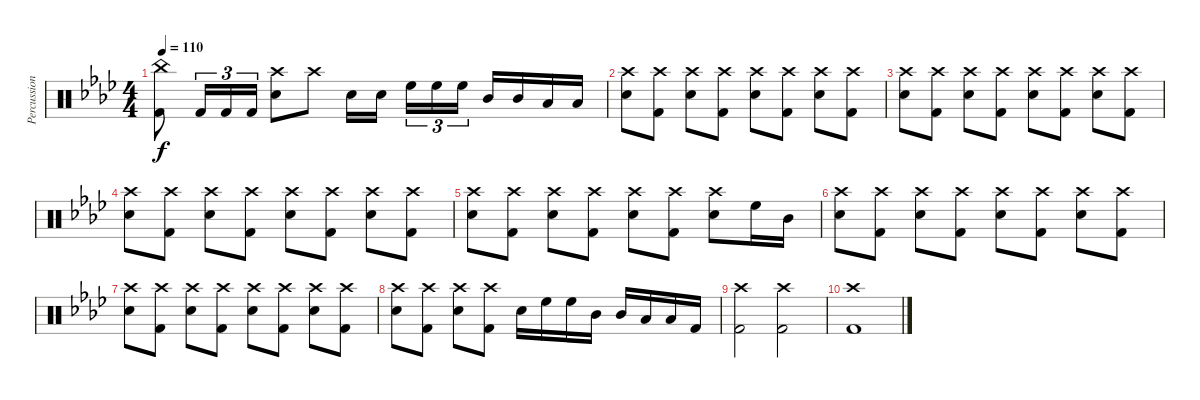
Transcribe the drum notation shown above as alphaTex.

\track ("Percussions" "Percussion") {instrument percussion}
\staff {score}
\articulation defaults
\ts (4 4)
\tempo 110
\clef neutral
\ks fminor
("China (hit)" "Kick (hit) 2").8{dy f} "Kick (hit) 2".16{tu (3 2)} "Kick (hit) 2".16{tu (3 2)} "Kick (hit) 2".16{tu (3 2)} ("Crash high (hit)" "Snare (hit) 2").8 "Crash high (hit)".8 "Snare (hit) 2".16 "Snare (hit) 2".16 "High Floor Tom (hit)".16{tu (3 2)} "High Floor Tom (hit)".16{tu (3 2)} "High Floor Tom (hit)".16{tu (3 2)} "Mid Tom (hit)".16 "Mid Tom (hit)".16 "Low Tom (hit)".16 "Low Tom (hit)".16 |
("Crash high (hit)" "Snare (hit) 2").8 ("Crash high (hit)" "Kick (hit) 2").8 ("Crash high (hit)" "Snare (hit) 2").8 ("Crash high (hit)" "Kick (hit) 2").8 ("Crash high (hit)" "Snare (hit) 2").8 ("Crash high (hit)" "Kick (hit) 2").8 ("Crash high (hit)" "Snare (hit) 2").8 ("Crash high (hit)" "Kick (hit) 2").8 |
("Crash high (hit)" "Snare (hit) 2").8 ("Crash high (hit)" "Kick (hit) 2").8 ("Crash high (hit)" "Snare (hit) 2").8 ("Crash high (hit)" "Kick (hit) 2").8 ("Crash high (hit)" "Snare (hit) 2").8 ("Crash high (hit)" "Kick (hit) 2").8 ("Crash high (hit)" "Snare (hit) 2").8 ("Crash high (hit)" "Kick (hit) 2").8 |
("Crash high (hit)" "Snare (hit) 2").8 ("Crash high (hit)" "Kick (hit) 2").8 ("Crash high (hit)" "Snare (hit) 2").8 ("Crash high (hit)" "Kick (hit) 2").8 ("Crash high (hit)" "Snare (hit) 2").8 ("Crash high (hit)" "Kick (hit) 2").8 ("Crash high (hit)" "Snare (hit) 2").8 ("Crash high (hit)" "Kick (hit) 2").8 |
("Crash high (hit)" "Snare (hit) 2").8 ("Crash high (hit)" "Kick (hit) 2").8 ("Crash high (hit)" "Snare (hit) 2").8 ("Crash high (hit)" "Kick (hit) 2").8 ("Crash high (hit)" "Snare (hit) 2").8 ("Crash high (hit)" "Kick (hit) 2").8 ("Crash high (hit)" "Snare (hit) 2").8 "High Floor Tom (hit)".16 "Mid Tom (hit)".16 |
("Crash high (hit)" "Snare (hit) 2").8 ("Crash high (hit)" "Kick (hit) 2").8 ("Crash high (hit)" "Snare (hit) 2").8 ("Crash high (hit)" "Kick (hit) 2").8 ("Crash high (hit)" "Snare (hit) 2").8 ("Crash high (hit)" "Kick (hit) 2").8 ("Crash high (hit)" "Snare (hit) 2").8 ("Crash high (hit)" "Kick (hit) 2").8 |
("Crash high (hit)" "Snare (hit) 2").8 ("Crash high (hit)" "Kick (hit) 2").8 ("Crash high (hit)" "Snare (hit) 2").8 ("Crash high (hit)" "Kick (hit) 2").8 ("Crash high (hit)" "Snare (hit) 2").8 ("Crash high (hit)" "Kick (hit) 2").8 ("Crash high (hit)" "Snare (hit) 2").8 ("Crash high (hit)" "Kick (hit) 2").8 |
("Crash high (hit)" "Snare (hit) 2").8 ("Crash high (hit)" "Kick (hit) 2").8 ("Crash high (hit)" "Snare (hit) 2").8 ("Crash high (hit)" "Kick (hit) 2").8 "Snare (hit) 2".16 "High Floor Tom (hit)".16 "High Floor Tom (hit)".16 "Mid Tom (hit)".16 "Mid Tom (hit)".16 "Low Tom (hit)".16 "Low Tom (hit)".16 "Kick (hit) 2".16 |
("Crash high (hit)" "Kick (hit) 2").2 ("Crash high (hit)" "Kick (hit) 2").2 |
("Crash high (hit)" "Kick (hit) 2").1
